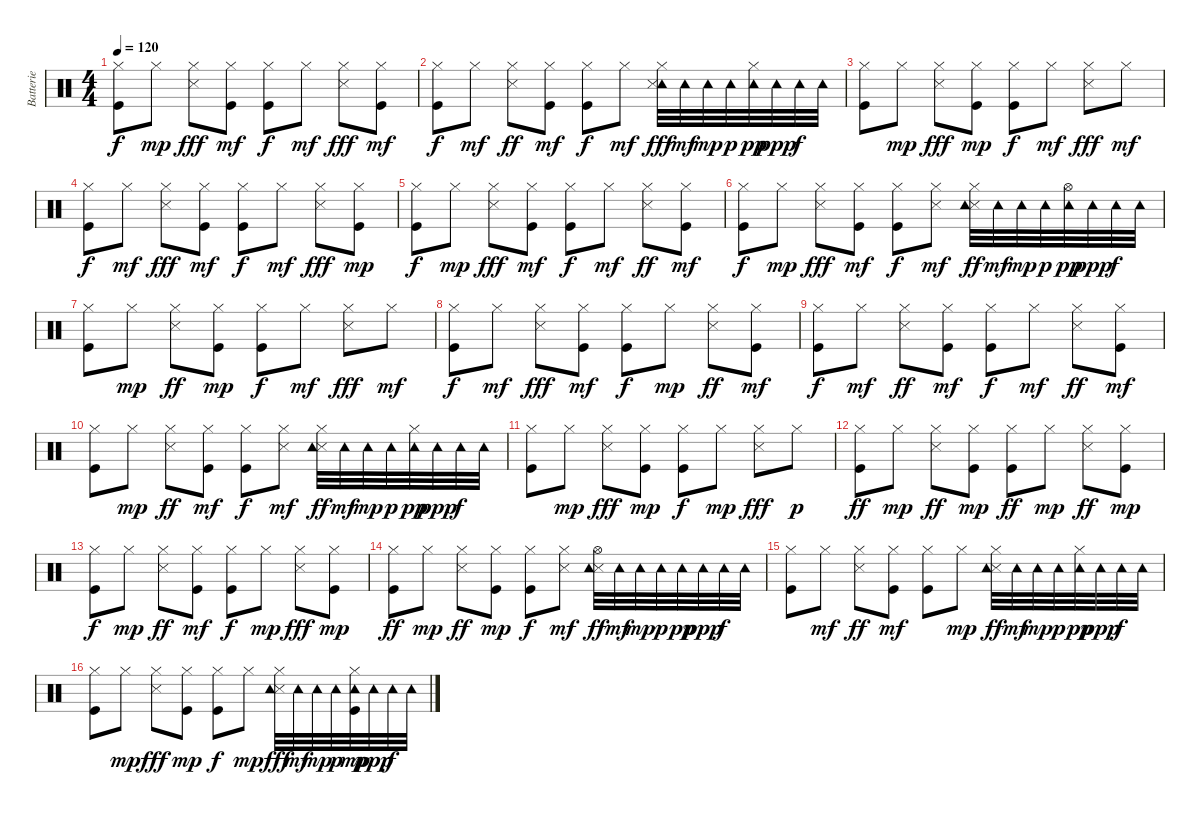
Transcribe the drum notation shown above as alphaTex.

\track ("Batterie" "Batterie") {instrument percussion}
\staff {score}
\articulation defaults
\ts (4 4)
\tempo 120
\clef neutral
\ks c
("Kick (hit)" "Hi-Hat (closed)").8{dy f} "Hi-Hat (closed)".8{dy mp} ("Snare (side stick) 3" "Hi-Hat (closed)").8{dy fff} ("Kick (hit)" "Hi-Hat (closed)").8{dy mf} ("Kick (hit)" "Hi-Hat (closed)").8{dy f} "Hi-Hat (closed)".8{dy mf} ("Snare (side stick) 3" "Hi-Hat (closed)").8{dy fff} ("Kick (hit)" "Hi-Hat (closed)").8{dy mf} |
("Kick (hit)" "Hi-Hat (closed)").8{dy f} "Hi-Hat (closed)".8{dy mf} ("Snare (side stick) 3" "Hi-Hat (closed)").8{dy ff} ("Kick (hit)" "Hi-Hat (closed)").8{dy mf} ("Kick (hit)" "Hi-Hat (closed)").8{dy f} "Hi-Hat (closed)".8{dy mf} ("Tambourine (hit)" "Snare (side stick) 3" "Hi-Hat (closed)").32{dy fff} "Tambourine (hit)".32{dy mf} "Tambourine (hit)".32{dy mp} "Tambourine (hit)".32{dy p} ("Hi-Hat (closed)" "Tambourine (hit)").32{dy pp} "Tambourine (hit)".32{dy ppp} "Tambourine (hit)".32{dy f} "Tambourine (hit)".32 |
("Kick (hit)" "Hi-Hat (closed)").8 "Hi-Hat (closed)".8{dy mp} ("Snare (side stick) 3" "Hi-Hat (closed)").8{dy fff} ("Kick (hit)" "Hi-Hat (closed)").8{dy mp} ("Kick (hit)" "Hi-Hat (closed)").8{dy f} "Hi-Hat (closed)".8{dy mf} ("Snare (side stick) 3" "Hi-Hat (closed)").8{dy fff} "Hi-Hat (closed)".8{dy mf} |
("Kick (hit)" "Hi-Hat (closed)").8{dy f} "Hi-Hat (closed)".8{dy mf} ("Snare (side stick) 3" "Hi-Hat (closed)").8{dy fff} ("Kick (hit)" "Hi-Hat (closed)").8{dy mf} ("Kick (hit)" "Hi-Hat (closed)").8{dy f} "Hi-Hat (closed)".8{dy mf} ("Snare (side stick) 3" "Hi-Hat (closed)").8{dy fff} ("Kick (hit)" "Hi-Hat (closed)").8{dy mp} |
("Kick (hit)" "Hi-Hat (closed)").8{dy f} "Hi-Hat (closed)".8{dy mp} ("Snare (side stick) 3" "Hi-Hat (closed)").8{dy fff} ("Kick (hit)" "Hi-Hat (closed)").8{dy mf} ("Kick (hit)" "Hi-Hat (closed)").8{dy f} "Hi-Hat (closed)".8{dy mf} ("Snare (side stick) 3" "Hi-Hat (closed)").8{dy ff} ("Kick (hit)" "Hi-Hat (closed)").8{dy mf} |
("Kick (hit)" "Hi-Hat (closed)").8{dy f} "Hi-Hat (closed)".8{dy mp} ("Snare (side stick) 3" "Hi-Hat (closed)").8{dy fff} ("Kick (hit)" "Hi-Hat (closed)").8{dy mf} ("Kick (hit)" "Hi-Hat (closed)").8{dy f} ("Snare (side stick) 3" "Hi-Hat (closed)").8{dy mf} ("Snare (side stick) 3" "Hi-Hat (closed)" "Tambourine (hit)").32{dy ff} "Tambourine (hit)".32{dy mf} "Tambourine (hit)".32{dy mp} "Tambourine (hit)".32{dy p} ("Hi-Hat (open)" "Tambourine (hit)").32{dy pp} "Tambourine (hit)".32{dy ppp} "Tambourine (hit)".32{dy f} "Tambourine (hit)".32 |
("Kick (hit)" "Hi-Hat (closed)").8 "Hi-Hat (closed)".8{dy mp} ("Snare (side stick) 3" "Hi-Hat (closed)").8{dy ff} ("Kick (hit)" "Hi-Hat (closed)").8{dy mp} ("Kick (hit)" "Hi-Hat (closed)").8{dy f} "Hi-Hat (closed)".8{dy mf} ("Snare (side stick) 3" "Hi-Hat (closed)").8{dy fff} "Hi-Hat (closed)".8{dy mf} |
("Kick (hit)" "Hi-Hat (closed)").8{dy f} "Hi-Hat (closed)".8{dy mf} ("Snare (side stick) 3" "Hi-Hat (closed)").8{dy fff} ("Kick (hit)" "Hi-Hat (closed)").8{dy mf} ("Kick (hit)" "Hi-Hat (closed)").8{dy f} "Hi-Hat (closed)".8{dy mp} ("Snare (side stick) 3" "Hi-Hat (closed)").8{dy ff} ("Kick (hit)" "Hi-Hat (closed)").8{dy mf} |
("Kick (hit)" "Hi-Hat (closed)").8{dy f} "Hi-Hat (closed)".8{dy mf} ("Snare (side stick) 3" "Hi-Hat (closed)").8{dy ff} ("Kick (hit)" "Hi-Hat (closed)").8{dy mf} ("Kick (hit)" "Hi-Hat (closed)").8{dy f} "Hi-Hat (closed)".8{dy mf} ("Snare (side stick) 3" "Hi-Hat (closed)").8{dy ff} ("Kick (hit)" "Hi-Hat (closed)").8{dy mf} |
("Kick (hit)" "Hi-Hat (closed)").8 "Hi-Hat (closed)".8{dy mp} ("Snare (side stick) 3" "Hi-Hat (closed)").8{dy ff} ("Kick (hit)" "Hi-Hat (closed)").8{dy mf} ("Kick (hit)" "Hi-Hat (closed)").8{dy f} ("Snare (side stick) 3" "Hi-Hat (closed)").8{dy mf} ("Snare (side stick) 3" "Hi-Hat (closed)" "Tambourine (hit)").32{dy ff} "Tambourine (hit)".32{dy mf} "Tambourine (hit)".32{dy mp} "Tambourine (hit)".32{dy p} ("Hi-Hat (closed)" "Tambourine (hit)").32{dy pp} "Tambourine (hit)".32{dy ppp} "Tambourine (hit)".32{dy f} "Tambourine (hit)".32 |
("Kick (hit)" "Hi-Hat (closed)").8 "Hi-Hat (closed)".8{dy mp} ("Snare (side stick) 3" "Hi-Hat (closed)").8{dy fff} ("Kick (hit)" "Hi-Hat (closed)").8{dy mp} ("Kick (hit)" "Hi-Hat (closed)").8{dy f} "Hi-Hat (closed)".8{dy mp} ("Snare (side stick) 3" "Hi-Hat (closed)").8{dy fff} "Hi-Hat (closed)".8{dy p} |
("Kick (hit)" "Hi-Hat (closed)").8{dy ff} "Hi-Hat (closed)".8{dy mp} ("Snare (side stick) 3" "Hi-Hat (closed)").8{dy ff} ("Kick (hit)" "Hi-Hat (closed)").8{dy mp} ("Kick (hit)" "Hi-Hat (closed)").8{dy ff} "Hi-Hat (closed)".8{dy mp} ("Snare (side stick) 3" "Hi-Hat (closed)").8{dy ff} ("Kick (hit)" "Hi-Hat (closed)").8{dy mp} |
("Kick (hit)" "Hi-Hat (closed)").8{dy f} "Hi-Hat (closed)".8{dy mp} ("Snare (side stick) 3" "Hi-Hat (closed)").8{dy ff} ("Kick (hit)" "Hi-Hat (closed)").8{dy mf} ("Kick (hit)" "Hi-Hat (closed)").8{dy f} "Hi-Hat (closed)".8{dy mp} ("Snare (side stick) 3" "Hi-Hat (closed)").8{dy fff} ("Kick (hit)" "Hi-Hat (closed)").8{dy mp} |
("Kick (hit)" "Hi-Hat (closed)").8{dy ff} "Hi-Hat (closed)".8{dy mp} ("Snare (side stick) 3" "Hi-Hat (closed)").8{dy ff} ("Kick (hit)" "Hi-Hat (closed)").8{dy mp} ("Kick (hit)" "Hi-Hat (closed)").8{dy f} ("Snare (side stick) 3" "Hi-Hat (closed)").8{dy mf} ("Snare (side stick) 3" "Hi-Hat (open)" "Tambourine (hit)").32{dy ff} "Tambourine (hit)".32{dy mf} "Tambourine (hit)".32{dy mp} "Tambourine (hit)".32{dy p} "Tambourine (hit)".32{dy pp} "Tambourine (hit)".32{dy ppp} "Tambourine (hit)".32{dy f} "Tambourine (hit)".32 |
("Kick (hit)" "Hi-Hat (closed)").8 "Hi-Hat (closed)".8{dy mf} ("Snare (side stick) 3" "Hi-Hat (closed)").8{dy ff} ("Kick (hit)" "Hi-Hat (closed)").8{dy mf} ("Kick (hit)" "Hi-Hat (closed)").8 "Hi-Hat (closed)".8{dy mp} ("Snare (side stick) 3" "Tambourine (hit)" "Hi-Hat (closed)").32{dy ff} "Tambourine (hit)".32{dy mf} "Tambourine (hit)".32{dy mp} "Tambourine (hit)".32{dy p} ("Hi-Hat (closed)" "Tambourine (hit)").32{dy pp} "Tambourine (hit)".32{dy ppp} "Tambourine (hit)".32{dy f} "Tambourine (hit)".32 |
("Kick (hit)" "Hi-Hat (closed)").8 "Hi-Hat (closed)".8{dy mp} ("Snare (side stick) 3" "Hi-Hat (closed)").8{dy fff} ("Kick (hit)" "Hi-Hat (closed)").8{dy mp} ("Kick (hit)" "Hi-Hat (closed)").8{dy f} "Hi-Hat (closed)".8{dy mp} ("Snare (side stick) 3" "Tambourine (hit)" "Hi-Hat (closed)").32{dy fff} "Tambourine (hit)".32{dy mf} "Tambourine (hit)".32{dy mp} "Tambourine (hit)".32{dy p} ("Tambourine (hit)" "Kick (hit)" "Hi-Hat (closed)").32{dy mp} "Tambourine (hit)".32{dy ppp} "Tambourine (hit)".32{dy f} "Tambourine (hit)".32
